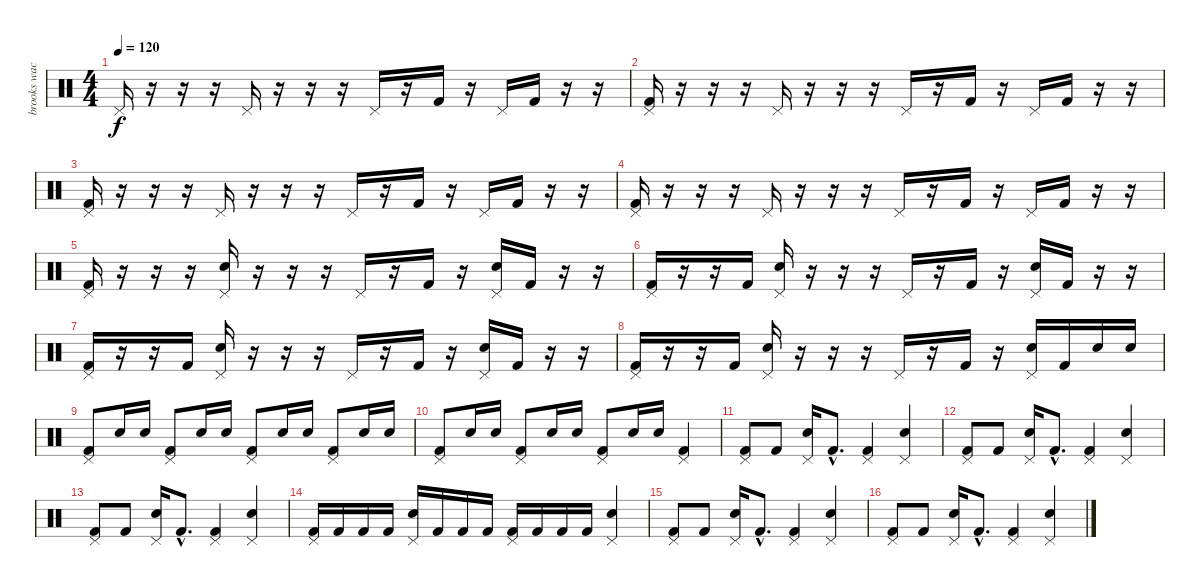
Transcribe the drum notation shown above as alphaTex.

\track ("brooks wackerman" "brooks wac") {instrument percussion}
\staff {score}
\articulation defaults
\ts (4 4)
\tempo 120
\clef neutral
\ks c "Pedal Hi-Hat (hit)".16{dy f}
r.16 r.16 r.16 "Pedal Hi-Hat (hit)".16 r.16 r.16 r.16 "Pedal Hi-Hat (hit)".16 r.16 "Kick (hit) 2".16 r.16 "Pedal Hi-Hat (hit)".16 "Kick (hit) 2".16 r.16 r.16 |
("Pedal Hi-Hat (hit)" "Kick (hit) 2").16 r.16 r.16 r.16 "Pedal Hi-Hat (hit)".16 r.16 r.16 r.16 "Pedal Hi-Hat (hit)".16 r.16 "Kick (hit) 2".16 r.16 "Pedal Hi-Hat (hit)".16 "Kick (hit) 2".16 r.16 r.16 |
("Pedal Hi-Hat (hit)" "Kick (hit) 2").16 r.16 r.16 r.16 "Pedal Hi-Hat (hit)".16 r.16 r.16 r.16 "Pedal Hi-Hat (hit)".16 r.16 "Kick (hit) 2".16 r.16 "Pedal Hi-Hat (hit)".16 "Kick (hit) 2".16 r.16 r.16 |
("Pedal Hi-Hat (hit)" "Kick (hit) 2").16 r.16 r.16 r.16 "Pedal Hi-Hat (hit)".16 r.16 r.16 r.16 "Pedal Hi-Hat (hit)".16 r.16 "Kick (hit) 2".16 r.16 "Pedal Hi-Hat (hit)".16 "Kick (hit) 2".16 r.16 r.16 |
("Pedal Hi-Hat (hit)" "Kick (hit) 2").16 r.16 r.16 r.16 ("Pedal Hi-Hat (hit)" "Electric Snare (hit)").16 r.16 r.16 r.16 "Pedal Hi-Hat (hit)".16 r.16 "Kick (hit) 2".16 r.16 ("Pedal Hi-Hat (hit)" "Electric Snare (hit)").16 "Kick (hit) 2".16 r.16 r.16 |
("Pedal Hi-Hat (hit)" "Kick (hit) 2").16 r.16 r.16 "Kick (hit) 2".16 ("Pedal Hi-Hat (hit)" "Electric Snare (hit)").16 r.16 r.16 r.16 "Pedal Hi-Hat (hit)".16 r.16 "Kick (hit) 2".16 r.16 ("Pedal Hi-Hat (hit)" "Electric Snare (hit)").16 "Kick (hit) 2".16 r.16 r.16 |
("Pedal Hi-Hat (hit)" "Kick (hit) 2").16 r.16 r.16 "Kick (hit) 2".16 ("Pedal Hi-Hat (hit)" "Electric Snare (hit)").16 r.16 r.16 r.16 "Pedal Hi-Hat (hit)".16 r.16 "Kick (hit) 2".16 r.16 ("Pedal Hi-Hat (hit)" "Electric Snare (hit)").16 "Kick (hit) 2".16 r.16 r.16 |
("Pedal Hi-Hat (hit)" "Kick (hit) 2").16 r.16 r.16 "Kick (hit) 2".16 ("Pedal Hi-Hat (hit)" "Electric Snare (hit)").16 r.16 r.16 r.16 "Pedal Hi-Hat (hit)".16 r.16 "Kick (hit) 2".16 r.16 ("Pedal Hi-Hat (hit)" "Electric Snare (hit)").16 "Kick (hit) 2".16 "Electric Snare (hit)".16 "Electric Snare (hit)".16 |
("Pedal Hi-Hat (hit)" "Kick (hit) 2").8 "Electric Snare (hit)".16 "Electric Snare (hit)".16 ("Pedal Hi-Hat (hit)" "Kick (hit) 2").8 "Electric Snare (hit)".16 "Electric Snare (hit)".16 ("Pedal Hi-Hat (hit)" "Kick (hit) 2").8 "Electric Snare (hit)".16 "Electric Snare (hit)".16 ("Pedal Hi-Hat (hit)" "Kick (hit) 2").8 "Electric Snare (hit)".16 "Electric Snare (hit)".16 |
("Pedal Hi-Hat (hit)" "Kick (hit) 2").8 "Electric Snare (hit)".16 "Electric Snare (hit)".16 ("Pedal Hi-Hat (hit)" "Kick (hit) 2").8 "Electric Snare (hit)".16 "Electric Snare (hit)".16 ("Pedal Hi-Hat (hit)" "Kick (hit) 2").8 "Electric Snare (hit)".16 "Electric Snare (hit)".16 ("Pedal Hi-Hat (hit)" "Kick (hit) 2").4 |
("Pedal Hi-Hat (hit)" "Kick (hit) 2").8 "Kick (hit) 2".8 ("Pedal Hi-Hat (hit)" "Electric Snare (hit)").16 "Kick (hit) 2"{hac}.8{d} ("Pedal Hi-Hat (hit)" "Kick (hit) 2").4 ("Pedal Hi-Hat (hit)" "Electric Snare (hit)").4 |
("Pedal Hi-Hat (hit)" "Kick (hit) 2").8 "Kick (hit) 2".8 ("Pedal Hi-Hat (hit)" "Electric Snare (hit)").16 "Kick (hit) 2"{hac}.8{d} ("Pedal Hi-Hat (hit)" "Kick (hit) 2").4 ("Pedal Hi-Hat (hit)" "Electric Snare (hit)").4 |
("Pedal Hi-Hat (hit)" "Kick (hit) 2").8 "Kick (hit) 2".8 ("Pedal Hi-Hat (hit)" "Electric Snare (hit)").16 "Kick (hit) 2"{hac}.8{d} ("Pedal Hi-Hat (hit)" "Kick (hit) 2").4 ("Pedal Hi-Hat (hit)" "Electric Snare (hit)").4 |
("Pedal Hi-Hat (hit)" "Kick (hit) 2").16 "Kick (hit) 2".16 "Kick (hit) 2".16 "Kick (hit) 2".16 ("Pedal Hi-Hat (hit)" "Electric Snare (hit)").16 "Kick (hit) 2".16 "Kick (hit) 2".16 "Kick (hit) 2".16 ("Pedal Hi-Hat (hit)" "Kick (hit) 2").16 "Kick (hit) 2".16 "Kick (hit) 2".16 "Kick (hit) 2".16 ("Pedal Hi-Hat (hit)" "Electric Snare (hit)").4 |
("Pedal Hi-Hat (hit)" "Kick (hit) 2").8 "Kick (hit) 2".8 ("Pedal Hi-Hat (hit)" "Electric Snare (hit)").16 "Kick (hit) 2"{hac}.8{d} ("Pedal Hi-Hat (hit)" "Kick (hit) 2").4 ("Pedal Hi-Hat (hit)" "Electric Snare (hit)").4 |
("Pedal Hi-Hat (hit)" "Kick (hit) 2").8 "Kick (hit) 2".8 ("Pedal Hi-Hat (hit)" "Electric Snare (hit)").16 "Kick (hit) 2"{hac}.8{d} ("Pedal Hi-Hat (hit)" "Kick (hit) 2").4 ("Pedal Hi-Hat (hit)" "Electric Snare (hit)").4
